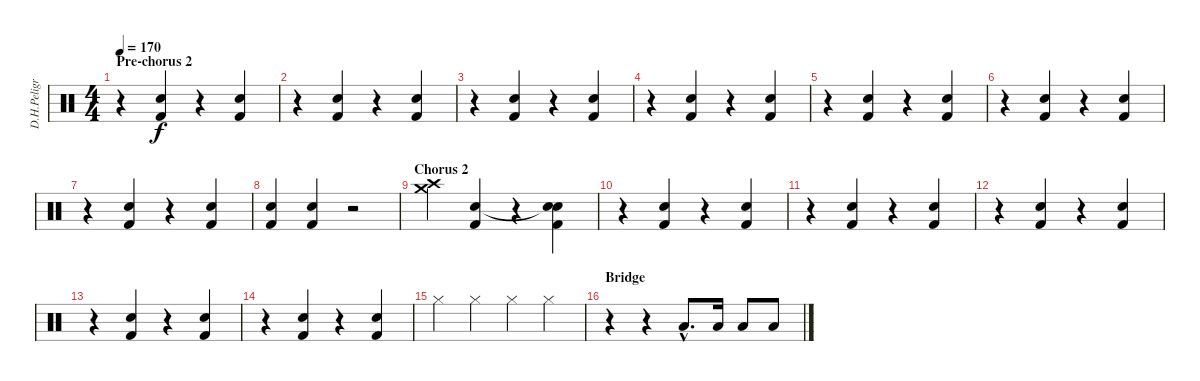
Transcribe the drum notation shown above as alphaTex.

\track ("D.H.Peligro" "D.H.Peligr") {instrument percussion}
\staff {score}
\articulation defaults
\ts (4 4)
\section ("" "Pre-chorus 2")
\tempo 170
\clef neutral
\ks c
r.4{dy f} ("Electric Snare (hit)" "Kick (hit) 2").4 r.4 ("Electric Snare (hit)" "Kick (hit) 2").4 |
r.4 ("Electric Snare (hit)" "Kick (hit) 2").4 r.4 ("Electric Snare (hit)" "Kick (hit) 2").4 |
r.4 ("Electric Snare (hit)" "Kick (hit) 2").4 r.4 ("Electric Snare (hit)" "Kick (hit) 2").4 |
r.4 ("Electric Snare (hit)" "Kick (hit) 2").4 r.4 ("Electric Snare (hit)" "Kick (hit) 2").4 |
r.4 ("Electric Snare (hit)" "Kick (hit) 2").4 r.4 ("Electric Snare (hit)" "Kick (hit) 2").4 |
r.4 ("Electric Snare (hit)" "Kick (hit) 2").4 r.4 ("Electric Snare (hit)" "Kick (hit) 2").4 |
r.4 ("Electric Snare (hit)" "Kick (hit) 2").4 r.4 ("Electric Snare (hit)" "Kick (hit) 2").4 |
("Electric Snare (hit)" "Kick (hit) 2").4 ("Electric Snare (hit)" "Kick (hit) 2").4 r.2 |
\section ("" "Chorus 2")
("Crash medium (hit)" "Crash high (hit)").4 ("Electric Snare (hit)" "Kick (hit) 2").4 r.4 ("Snare (hit)"{t} "Electric Snare (hit)" "Kick (hit) 2").4 |
r.4 ("Electric Snare (hit)" "Kick (hit) 2").4 r.4 ("Electric Snare (hit)" "Kick (hit) 2").4 |
r.4 ("Electric Snare (hit)" "Kick (hit) 2").4 r.4 ("Electric Snare (hit)" "Kick (hit) 2").4 |
r.4 ("Electric Snare (hit)" "Kick (hit) 2").4 r.4 ("Electric Snare (hit)" "Kick (hit) 2").4 |
r.4 ("Electric Snare (hit)" "Kick (hit) 2").4 r.4 ("Electric Snare (hit)" "Kick (hit) 2").4 |
r.4 ("Electric Snare (hit)" "Kick (hit) 2").4 r.4 ("Electric Snare (hit)" "Kick (hit) 2").4 |
"Hi-Hat (closed)".4 "Hi-Hat (closed)".4 "Hi-Hat (closed)".4 "Hi-Hat (closed)".4 |
\section ("" "Bridge")
r.4 r.4 "Low Tom (hit)"{hac}.8{d} "Low Tom (hit)".16 "Low Tom (hit)".8 "Low Tom (hit)".8
